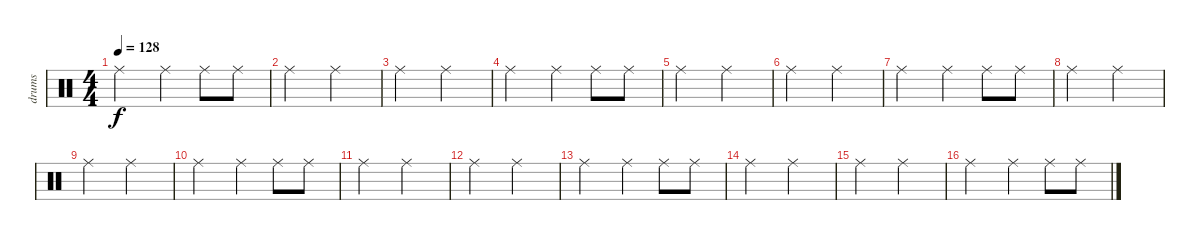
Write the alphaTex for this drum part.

\track ("drums" "drums") {instrument percussion}
\staff {score}
\articulation defaults
\ts (4 4)
\tempo 128
\clef neutral
\ks c "Ride (middle)".2{dy f} "Ride (middle)".4 "Ride (middle)".8 "Ride (middle)".8
|
"Ride (middle)".2 "Ride (middle)".2 |
"Ride (middle)".2 "Ride (middle)".2 |
"Ride (middle)".2 "Ride (middle)".4 "Ride (middle)".8 "Ride (middle)".8 |
"Ride (middle)".2 "Ride (middle)".2 |
"Ride (middle)".2 "Ride (middle)".2 |
"Ride (middle)".2 "Ride (middle)".4 "Ride (middle)".8 "Ride (middle)".8 |
"Ride (middle)".2 "Ride (middle)".2 |
"Ride (middle)".2 "Ride (middle)".2 |
"Ride (middle)".2 "Ride (middle)".4 "Ride (middle)".8 "Ride (middle)".8 |
"Ride (middle)".2 "Ride (middle)".2 |
"Ride (middle)".2 "Ride (middle)".2 |
"Ride (middle)".2 "Ride (middle)".4 "Ride (middle)".8 "Ride (middle)".8 |
"Ride (middle)".2 "Ride (middle)".2 |
"Ride (middle)".2 "Ride (middle)".2 |
"Ride (middle)".2 "Ride (middle)".4 "Ride (middle)".8 "Ride (middle)".8
